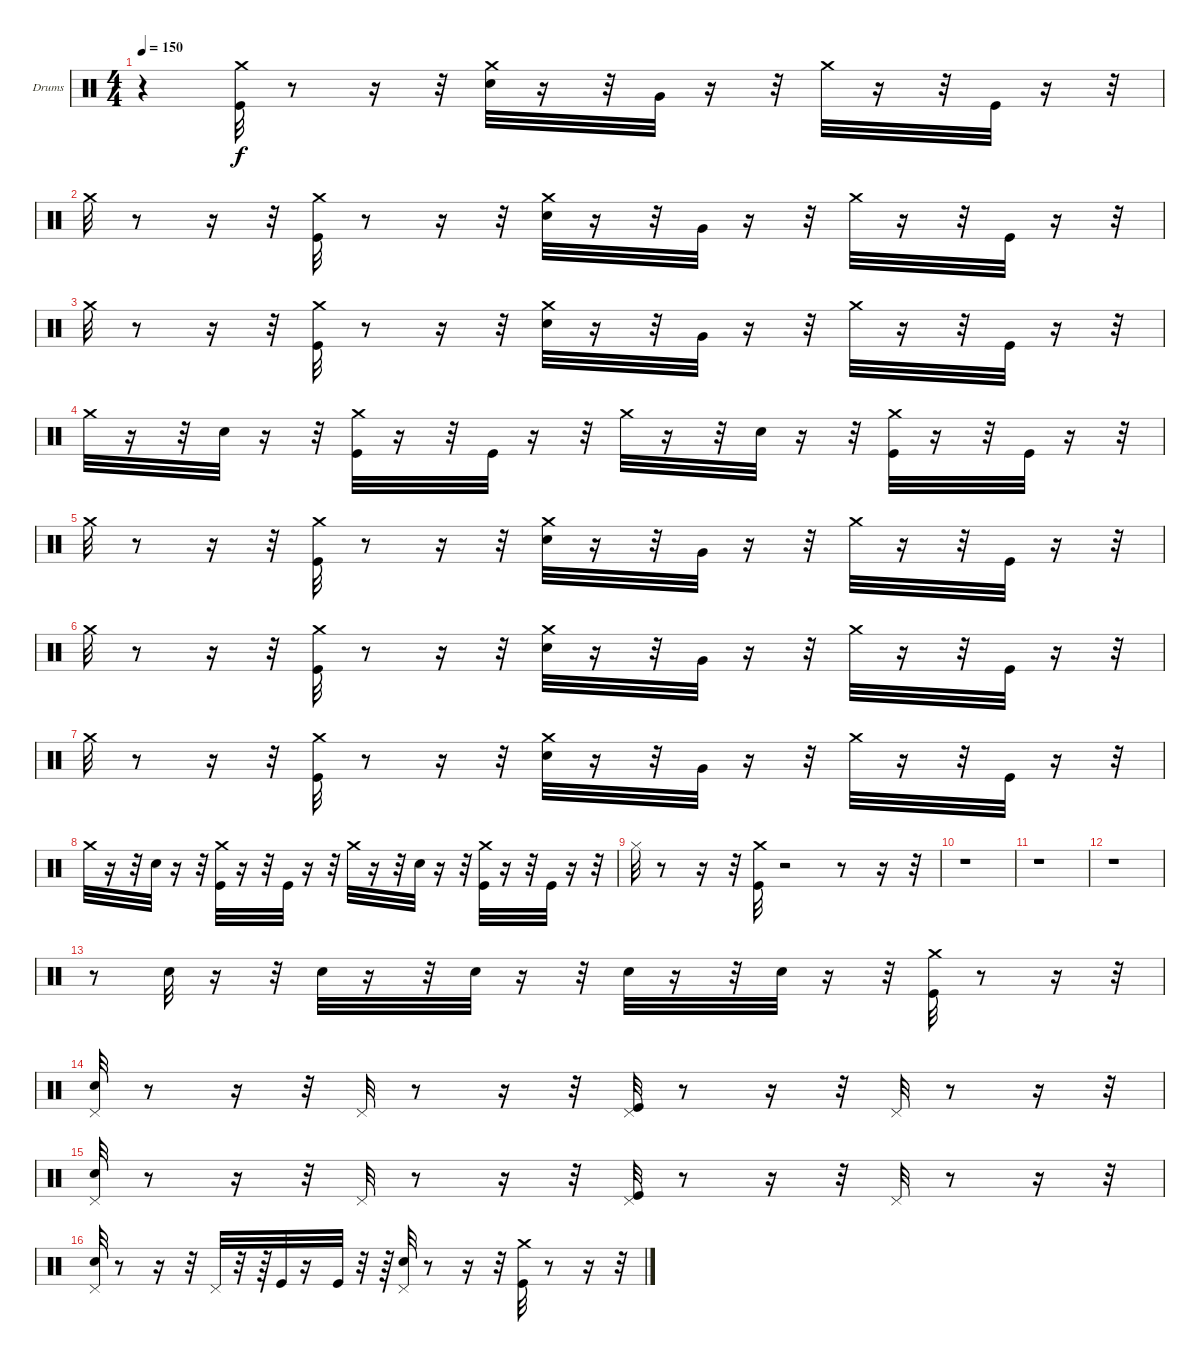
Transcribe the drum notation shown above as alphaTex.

\bracketExtendMode groupsimilarinstruments
\firstSystemTrackNameOrientation horizontal
\otherSystemsTrackNameOrientation horizontal
\track ("Drumkit" "Drums") {instrument percussion}
\staff {score}
\articulation defaults
\ts (4 4)
\tempo 150
\clef neutral
\ks c
r.4{dy f} ("Kick (hit)" "Crash medium (hit)").32 r.8 r.16 r.32 ("Snare (hit) 2" "Crash medium (hit)").32 r.16 r.32 "Very Low Tom (hit)".32 r.16 r.32 "Crash medium (hit)".32 r.16 r.32 "Kick (hit)".32 r.16 r.32 |
"Crash medium (hit)".32 r.8 r.16 r.32 ("Kick (hit)" "Crash medium (hit)").32 r.8 r.16 r.32 ("Snare (hit) 2" "Crash medium (hit)").32 r.16 r.32 "Very Low Tom (hit)".32 r.16 r.32 "Crash medium (hit)".32 r.16 r.32 "Kick (hit)".32 r.16 r.32 |
"Crash medium (hit)".32 r.8 r.16 r.32 ("Kick (hit)" "Crash medium (hit)").32 r.8 r.16 r.32 ("Snare (hit) 2" "Crash medium (hit)").32 r.16 r.32 "Very Low Tom (hit)".32 r.16 r.32 "Crash medium (hit)".32 r.16 r.32 "Kick (hit)".32 r.16 r.32 |
"Crash medium (hit)".32 r.16 r.32 "Snare (hit) 2".32 r.16 r.32 ("Crash medium (hit)" "Kick (hit)").32 r.16 r.32 "Kick (hit)".32 r.16 r.32 "Crash medium (hit)".32 r.16 r.32 "Snare (hit) 2".32 r.16 r.32 ("Crash medium (hit)" "Kick (hit)").32 r.16 r.32 "Kick (hit)".32 r.16 r.32 |
"Crash medium (hit)".32 r.8 r.16 r.32 ("Crash medium (hit)" "Kick (hit)").32 r.8 r.16 r.32 ("Crash medium (hit)" "Snare (hit) 2").32 r.16 r.32 "Very Low Tom (hit)".32 r.16 r.32 "Crash medium (hit)".32 r.16 r.32 "Kick (hit)".32 r.16 r.32 |
"Crash medium (hit)".32 r.8 r.16 r.32 ("Kick (hit)" "Crash medium (hit)").32 r.8 r.16 r.32 ("Snare (hit) 2" "Crash medium (hit)").32 r.16 r.32 "Very Low Tom (hit)".32 r.16 r.32 "Crash medium (hit)".32 r.16 r.32 "Kick (hit)".32 r.16 r.32 |
"Crash medium (hit)".32 r.8 r.16 r.32 ("Kick (hit)" "Crash medium (hit)").32 r.8 r.16 r.32 ("Snare (hit) 2" "Crash medium (hit)").32 r.16 r.32 "Very Low Tom (hit)".32 r.16 r.32 "Crash medium (hit)".32 r.16 r.32 "Kick (hit)".32 r.16 r.32 |
"Crash medium (hit)".32 r.16 r.32 "Snare (hit) 2".32 r.16 r.32 ("Crash medium (hit)" "Kick (hit)").32 r.16 r.32 "Kick (hit)".32 r.16 r.32 "Crash medium (hit)".32 r.16 r.32 "Snare (hit) 2".32 r.16 r.32 ("Crash medium (hit)" "Kick (hit)").32 r.16 r.32 "Kick (hit)".32 r.16 r.32 |
"Hi-Hat (closed)".32 r.8 r.16 r.32 ("Kick (hit)" "Crash medium (hit)").32 r.2 r.8 r.16 r.32 |
r.1 |
r.1 |
r.1 |
r.8 "Snare (hit) 2".32 r.16 r.32 "Snare (hit) 2".32 r.16 r.32 "Snare (hit) 2".32 r.16 r.32 "Snare (hit) 2".32 r.16 r.32 "Snare (hit) 2".32 r.16 r.32 ("Crash medium (hit)" "Kick (hit)").32 r.8 r.16 r.32 |
("Pedal Hi-Hat (hit)" "Snare (hit) 2").32 r.8 r.16 r.32 "Pedal Hi-Hat (hit)".32 r.8 r.16 r.32 ("Pedal Hi-Hat (hit)" "Kick (hit)").32 r.8 r.16 r.32 "Pedal Hi-Hat (hit)".32 r.8 r.16 r.32 |
("Pedal Hi-Hat (hit)" "Snare (hit) 2").32 r.8 r.16 r.32 "Pedal Hi-Hat (hit)".32 r.8 r.16 r.32 ("Pedal Hi-Hat (hit)" "Kick (hit)").32 r.8 r.16 r.32 "Pedal Hi-Hat (hit)".32 r.8 r.16 r.32 |
("Pedal Hi-Hat (hit)" "Snare (hit) 2").32 r.8 r.16 r.32 "Pedal Hi-Hat (hit)".32 r.32 r.64 "Kick (hit)".32 r.16 "Kick (hit)".32 r.32 r.64 ("Pedal Hi-Hat (hit)" "Snare (hit) 2").32 r.8 r.16 r.32 ("Crash medium (hit)" "Kick (hit)").32 r.8 r.16 r.32
